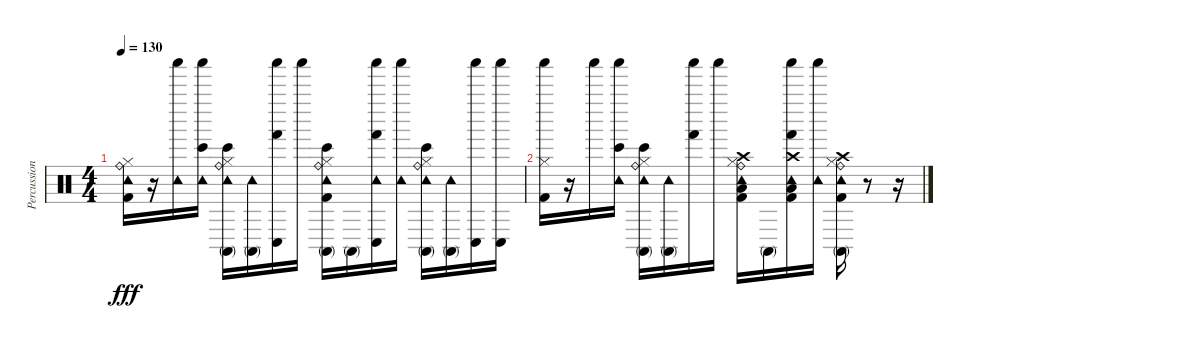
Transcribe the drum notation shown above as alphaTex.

\track ("Percussions" "Percussion") {instrument percussion}
\staff {score}
\articulation defaults
\ts (4 4)
\tempo 130
\clef neutral
\ks c
("Kick (hit) 2" "Ride (bell)" "Hi-Hat (closed)" "Tambourine (hit)").16{dy fff} r.16 ("Tambourine (hit)" "Shaker (hit)").16 ("Tambourine (hit)" "Shaker (hit)" "Bongo High (hit)").16 ("Ride (bell)" "Hi-Hat (closed)" "Tambourine (hit)" "Conga high (mute)" "Bongo High (hit)").16 ("Conga high (mute)" "Tambourine (hit)").16 ("Conga low (hit)" "Shaker (hit)" "Hand (hit)").16 "Shaker (hit)".16 ("Kick (hit) 2" "Ride (bell)" "Hi-Hat (closed)" "Tambourine (hit)" "Conga high (mute)" "Bongo High (hit)").16 "Conga high (mute)".16 ("Conga low (hit)" "Tambourine (hit)" "Shaker (hit)" "Hand (hit)").16 ("Tambourine (hit)" "Shaker (hit)").16 ("Ride (bell)" "Hi-Hat (closed)" "Tambourine (hit)" "Conga high (mute)" "Bongo High (hit)").16 ("Conga high (mute)" "Tambourine (hit)").16 ("Conga low (hit)" "Shaker (hit)").16 ("Conga low (hit)" "Shaker (hit)").16 |
("Shaker (hit)" "Kick (hit) 2" "Hi-Hat (closed)").16 r.16 "Shaker (hit)".16 ("Tambourine (hit)" "Shaker (hit)" "Bongo High (hit)").16 ("Ride (bell)" "Hi-Hat (closed)" "Tambourine (hit)" "Conga high (mute)" "Bongo High (hit)").16 ("Conga high (mute)" "Tambourine (hit)").16 ("Shaker (hit)" "Hand (hit)").16 "Shaker (hit)".16 ("Crash high (hit)" "Low Tom (hit)" "Kick (hit) 2" "Ride (bell)" "Hi-Hat (closed)" "Tambourine (hit)").16 "Conga high (mute)".16 ("Crash high (hit)" "Low Tom (hit)" "Kick (hit) 2" "Tambourine (hit)" "Shaker (hit)" "Hand (hit)").16 ("Tambourine (hit)" "Shaker (hit)").16 ("Conga high (mute)" "Crash high (hit)" "Kick (hit) 2" "Ride (bell)" "Hi-Hat (closed)" "Tambourine (hit)").16 r.8 r.16
